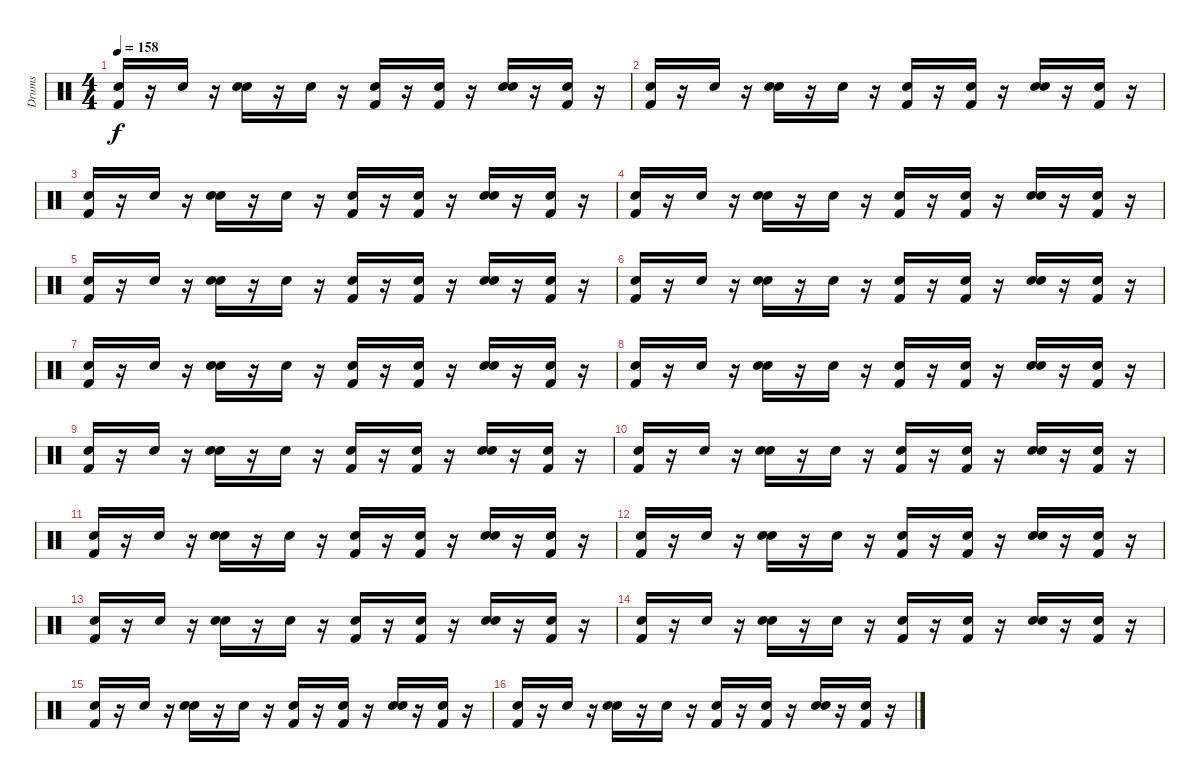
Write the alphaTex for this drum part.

\track ("Drums" "Drums") {instrument percussion}
\staff {score}
\articulation defaults
\ts (4 4)
\tempo 158
\clef neutral
\ks c
("Snare (hit) 2" "Kick (hit) 2").16{dy f} r.16 "Snare (hit) 2".16 r.16 ("Snare (hit) 2" "Electric Snare (hit)").16 r.16 "Snare (hit) 2".16 r.16 ("Snare (hit) 2" "Kick (hit) 2").16 r.16 ("Snare (hit) 2" "Kick (hit) 2").16 r.16 ("Snare (hit) 2" "Electric Snare (hit)").16 r.16 ("Snare (hit) 2" "Kick (hit) 2").16 r.16 |
("Snare (hit) 2" "Kick (hit) 2").16 r.16 "Snare (hit) 2".16 r.16 ("Snare (hit) 2" "Electric Snare (hit)").16 r.16 "Snare (hit) 2".16 r.16 ("Snare (hit) 2" "Kick (hit) 2").16 r.16 ("Snare (hit) 2" "Kick (hit) 2").16 r.16 ("Snare (hit) 2" "Electric Snare (hit)").16 r.16 ("Snare (hit) 2" "Kick (hit) 2").16 r.16 |
("Snare (hit) 2" "Kick (hit) 2").16 r.16 "Snare (hit) 2".16 r.16 ("Snare (hit) 2" "Electric Snare (hit)").16 r.16 "Snare (hit) 2".16 r.16 ("Snare (hit) 2" "Kick (hit) 2").16 r.16 ("Snare (hit) 2" "Kick (hit) 2").16 r.16 ("Snare (hit) 2" "Electric Snare (hit)").16 r.16 ("Snare (hit) 2" "Kick (hit) 2").16 r.16 |
("Snare (hit) 2" "Kick (hit) 2").16 r.16 "Snare (hit) 2".16 r.16 ("Snare (hit) 2" "Electric Snare (hit)").16 r.16 "Snare (hit) 2".16 r.16 ("Snare (hit) 2" "Kick (hit) 2").16 r.16 ("Snare (hit) 2" "Kick (hit) 2").16 r.16 ("Snare (hit) 2" "Electric Snare (hit)").16 r.16 ("Snare (hit) 2" "Kick (hit) 2").16 r.16 |
("Snare (hit) 2" "Kick (hit) 2").16 r.16 "Snare (hit) 2".16 r.16 ("Snare (hit) 2" "Electric Snare (hit)").16 r.16 "Snare (hit) 2".16 r.16 ("Snare (hit) 2" "Kick (hit) 2").16 r.16 ("Snare (hit) 2" "Kick (hit) 2").16 r.16 ("Snare (hit) 2" "Electric Snare (hit)").16 r.16 ("Snare (hit) 2" "Kick (hit) 2").16 r.16 |
("Snare (hit) 2" "Kick (hit) 2").16 r.16 "Snare (hit) 2".16 r.16 ("Snare (hit) 2" "Electric Snare (hit)").16 r.16 "Snare (hit) 2".16 r.16 ("Snare (hit) 2" "Kick (hit) 2").16 r.16 ("Snare (hit) 2" "Kick (hit) 2").16 r.16 ("Snare (hit) 2" "Electric Snare (hit)").16 r.16 ("Snare (hit) 2" "Kick (hit) 2").16 r.16 |
("Snare (hit) 2" "Kick (hit) 2").16 r.16 "Snare (hit) 2".16 r.16 ("Snare (hit) 2" "Electric Snare (hit)").16 r.16 "Snare (hit) 2".16 r.16 ("Snare (hit) 2" "Kick (hit) 2").16 r.16 ("Snare (hit) 2" "Kick (hit) 2").16 r.16 ("Snare (hit) 2" "Electric Snare (hit)").16 r.16 ("Snare (hit) 2" "Kick (hit) 2").16 r.16 |
("Snare (hit) 2" "Kick (hit) 2").16 r.16 "Snare (hit) 2".16 r.16 ("Snare (hit) 2" "Electric Snare (hit)").16 r.16 "Snare (hit) 2".16 r.16 ("Snare (hit) 2" "Kick (hit) 2").16 r.16 ("Snare (hit) 2" "Kick (hit) 2").16 r.16 ("Snare (hit) 2" "Electric Snare (hit)").16 r.16 ("Snare (hit) 2" "Kick (hit) 2").16 r.16 |
("Snare (hit) 2" "Kick (hit) 2").16 r.16 "Snare (hit) 2".16 r.16 ("Snare (hit) 2" "Electric Snare (hit)").16 r.16 "Snare (hit) 2".16 r.16 ("Snare (hit) 2" "Kick (hit) 2").16 r.16 ("Snare (hit) 2" "Kick (hit) 2").16 r.16 ("Snare (hit) 2" "Electric Snare (hit)").16 r.16 ("Snare (hit) 2" "Kick (hit) 2").16 r.16 |
("Snare (hit) 2" "Kick (hit) 2").16 r.16 "Snare (hit) 2".16 r.16 ("Snare (hit) 2" "Electric Snare (hit)").16 r.16 "Snare (hit) 2".16 r.16 ("Snare (hit) 2" "Kick (hit) 2").16 r.16 ("Snare (hit) 2" "Kick (hit) 2").16 r.16 ("Snare (hit) 2" "Electric Snare (hit)").16 r.16 ("Snare (hit) 2" "Kick (hit) 2").16 r.16 |
("Snare (hit) 2" "Kick (hit) 2").16 r.16 "Snare (hit) 2".16 r.16 ("Snare (hit) 2" "Electric Snare (hit)").16 r.16 "Snare (hit) 2".16 r.16 ("Snare (hit) 2" "Kick (hit) 2").16 r.16 ("Snare (hit) 2" "Kick (hit) 2").16 r.16 ("Snare (hit) 2" "Electric Snare (hit)").16 r.16 ("Snare (hit) 2" "Kick (hit) 2").16 r.16 |
("Snare (hit) 2" "Kick (hit) 2").16 r.16 "Snare (hit) 2".16 r.16 ("Snare (hit) 2" "Electric Snare (hit)").16 r.16 "Snare (hit) 2".16 r.16 ("Snare (hit) 2" "Kick (hit) 2").16 r.16 ("Snare (hit) 2" "Kick (hit) 2").16 r.16 ("Snare (hit) 2" "Electric Snare (hit)").16 r.16 ("Snare (hit) 2" "Kick (hit) 2").16 r.16 |
("Snare (hit) 2" "Kick (hit) 2").16 r.16 "Snare (hit) 2".16 r.16 ("Snare (hit) 2" "Electric Snare (hit)").16 r.16 "Snare (hit) 2".16 r.16 ("Snare (hit) 2" "Kick (hit) 2").16 r.16 ("Snare (hit) 2" "Kick (hit) 2").16 r.16 ("Snare (hit) 2" "Electric Snare (hit)").16 r.16 ("Snare (hit) 2" "Kick (hit) 2").16 r.16 |
("Snare (hit) 2" "Kick (hit) 2").16 r.16 "Snare (hit) 2".16 r.16 ("Snare (hit) 2" "Electric Snare (hit)").16 r.16 "Snare (hit) 2".16 r.16 ("Snare (hit) 2" "Kick (hit) 2").16 r.16 ("Snare (hit) 2" "Kick (hit) 2").16 r.16 ("Snare (hit) 2" "Electric Snare (hit)").16 r.16 ("Snare (hit) 2" "Kick (hit) 2").16 r.16 |
("Snare (hit) 2" "Kick (hit) 2").16 r.16 "Snare (hit) 2".16 r.16 ("Snare (hit) 2" "Electric Snare (hit)").16 r.16 "Snare (hit) 2".16 r.16 ("Snare (hit) 2" "Kick (hit) 2").16 r.16 ("Snare (hit) 2" "Kick (hit) 2").16 r.16 ("Snare (hit) 2" "Electric Snare (hit)").16 r.16 ("Snare (hit) 2" "Kick (hit) 2").16 r.16 |
("Snare (hit) 2" "Kick (hit) 2").16 r.16 "Snare (hit) 2".16 r.16 ("Snare (hit) 2" "Electric Snare (hit)").16 r.16 "Snare (hit) 2".16 r.16 ("Snare (hit) 2" "Kick (hit) 2").16 r.16 ("Snare (hit) 2" "Kick (hit) 2").16 r.16 ("Snare (hit) 2" "Electric Snare (hit)").16 r.16 ("Snare (hit) 2" "Kick (hit) 2").16 r.16
